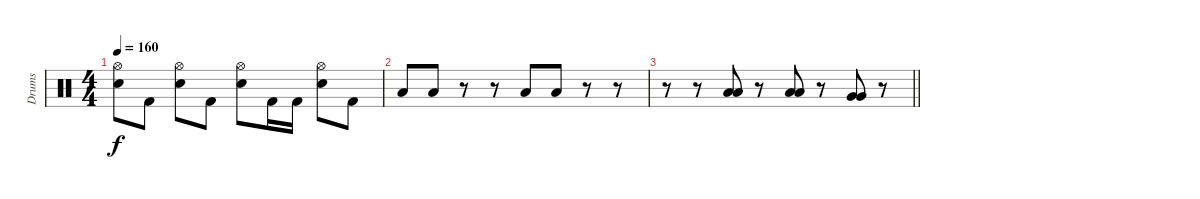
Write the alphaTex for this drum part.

\track ("Drums" "Drums") {instrument percussion}
\staff {score}
\articulation defaults
\ts (4 4)
\tempo 160
\clef neutral
\ks c
("Hi-Hat (open)" "Electric Snare (hit)").8{dy f} "Kick (hit) 2".8 ("Hi-Hat (open)" "Electric Snare (hit)").8 "Kick (hit) 2".8 ("Hi-Hat (open)" "Electric Snare (hit)").8 "Kick (hit) 2".16 "Kick (hit) 2".16 ("Hi-Hat (open)" "Electric Snare (hit)").8 "Kick (hit) 2".8 |
"Low Tom (hit)".8 "Low Tom (hit)".8 r.8 r.8 "Low Tom (hit)".8 "Low Tom (hit)".8 r.8 r.8 |
\barLineRight lightlight
r.8 r.8 ("Low Tom (hit)" "Low Tom (hit)").8 r.8 ("Low Tom (hit)" "Low Tom (hit)").8 r.8 ("Very Low Tom (hit)" "Very Low Tom (hit)").8 r.8
